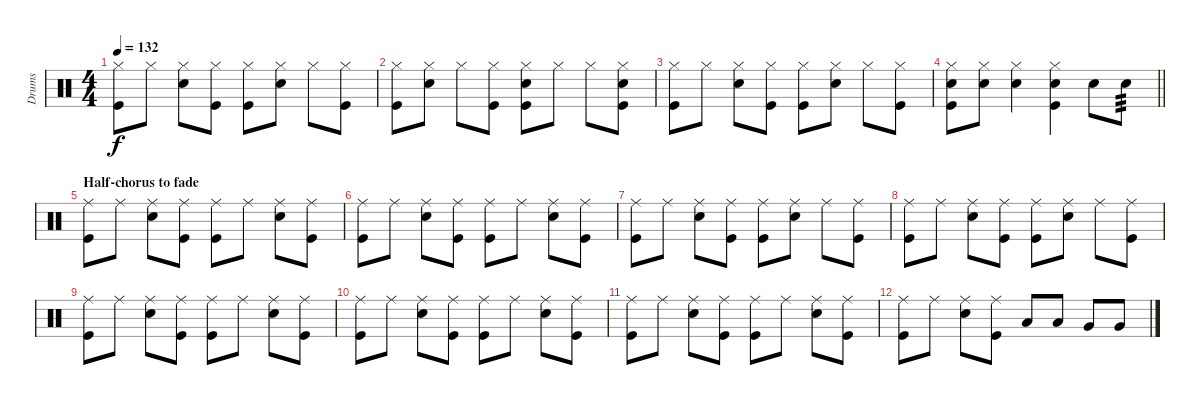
\track ("Drums" "Drums") {instrument percussion}
\staff {score}
\articulation defaults
\ts (4 4)
\tempo 132
\clef neutral
\ks c
("Hi-Hat (closed)" "Kick (hit)").8{dy f} "Hi-Hat (closed)".8 ("Hi-Hat (closed)" "Electric Snare (hit)").8 ("Hi-Hat (closed)" "Kick (hit)").8 ("Hi-Hat (closed)" "Kick (hit)").8 ("Hi-Hat (closed)" "Electric Snare (hit)").8 "Hi-Hat (closed)".8 ("Hi-Hat (closed)" "Kick (hit)").8 |
("Hi-Hat (closed)" "Kick (hit)").8 ("Hi-Hat (closed)" "Electric Snare (hit)").8 "Hi-Hat (closed)".8 ("Hi-Hat (closed)" "Kick (hit)").8 ("Hi-Hat (closed)" "Electric Snare (hit)" "Kick (hit)").8 "Hi-Hat (closed)".8 "Hi-Hat (closed)".8 ("Hi-Hat (closed)" "Electric Snare (hit)" "Kick (hit)").8 |
("Hi-Hat (closed)" "Kick (hit)").8 "Hi-Hat (closed)".8 ("Hi-Hat (closed)" "Electric Snare (hit)").8 ("Hi-Hat (closed)" "Kick (hit)").8 ("Hi-Hat (closed)" "Kick (hit)").8 ("Hi-Hat (closed)" "Electric Snare (hit)").8 "Hi-Hat (closed)".8 ("Hi-Hat (closed)" "Kick (hit)").8 |
\barLineRight lightlight
("Hi-Hat (closed)" "Electric Snare (hit)" "Kick (hit)").8 ("Hi-Hat (closed)" "Electric Snare (hit)").8 ("Hi-Hat (closed)" "Electric Snare (hit)").4 ("Hi-Hat (closed)" "Electric Snare (hit)" "Kick (hit)").4 "Electric Snare (hit)".8 "Electric Snare (hit)".8{tp 3} |
\section ("" "Half-chorus to fade")
("Ride (middle)" "Kick (hit)").8{volume 6} "Ride (middle)".8 ("Ride (middle)" "Electric Snare (hit)").8 ("Ride (middle)" "Kick (hit)").8 ("Ride (middle)" "Kick (hit)").8 "Ride (middle)".8 ("Ride (middle)" "Electric Snare (hit)").8 ("Ride (middle)" "Kick (hit)").8 |
("Ride (middle)" "Kick (hit)").8 "Ride (middle)".8 ("Ride (middle)" "Electric Snare (hit)").8 ("Ride (middle)" "Kick (hit)").8 ("Ride (middle)" "Kick (hit)").8 "Ride (middle)".8 ("Ride (middle)" "Electric Snare (hit)").8 ("Ride (middle)" "Kick (hit)").8 |
("Ride (middle)" "Kick (hit)").8 "Ride (middle)".8 ("Ride (middle)" "Electric Snare (hit)").8 ("Ride (middle)" "Kick (hit)").8 ("Ride (middle)" "Kick (hit)").8 ("Ride (middle)" "Electric Snare (hit)").8 "Ride (middle)".8 ("Ride (middle)" "Kick (hit)").8 |
("Ride (middle)" "Kick (hit)").8 "Ride (middle)".8 ("Ride (middle)" "Electric Snare (hit)").8 ("Ride (middle)" "Kick (hit)").8 ("Ride (middle)" "Kick (hit)").8 ("Ride (middle)" "Electric Snare (hit)").8 "Ride (middle)".8 ("Ride (middle)" "Kick (hit)").8 |
("Ride (middle)" "Kick (hit)").8{volume 0} "Ride (middle)".8 ("Ride (middle)" "Electric Snare (hit)").8 ("Ride (middle)" "Kick (hit)").8 ("Ride (middle)" "Kick (hit)").8 "Ride (middle)".8 ("Ride (middle)" "Electric Snare (hit)").8 ("Ride (middle)" "Kick (hit)").8 |
("Ride (middle)" "Kick (hit)").8 "Ride (middle)".8 ("Ride (middle)" "Electric Snare (hit)").8 ("Ride (middle)" "Kick (hit)").8 ("Ride (middle)" "Kick (hit)").8 "Ride (middle)".8 ("Ride (middle)" "Electric Snare (hit)").8 ("Ride (middle)" "Kick (hit)").8 |
("Ride (middle)" "Kick (hit)").8 "Ride (middle)".8 ("Ride (middle)" "Electric Snare (hit)").8 ("Ride (middle)" "Kick (hit)").8 ("Ride (middle)" "Kick (hit)").8 "Ride (middle)".8 ("Ride (middle)" "Electric Snare (hit)").8 ("Ride (middle)" "Kick (hit)").8 |
("Ride (middle)" "Kick (hit)").8 "Ride (middle)".8 ("Ride (middle)" "Electric Snare (hit)").8 ("Ride (middle)" "Kick (hit)").8 "Low Tom (hit)".8 "Low Tom (hit)".8 "Very Low Tom (hit)".8 "Very Low Tom (hit)".8
